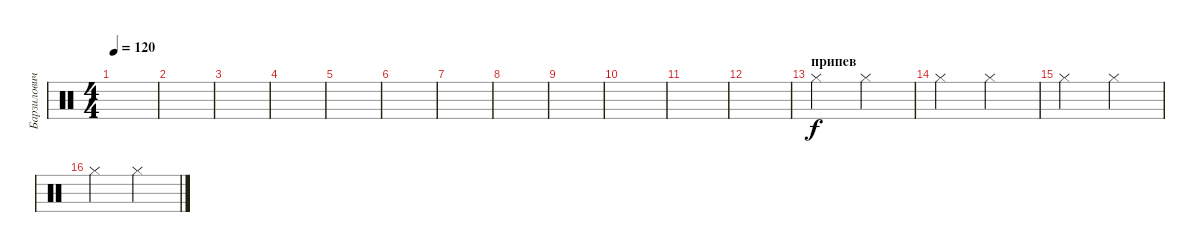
\track ("Барзилович" "Барзилович") {instrument percussion}
\staff {score}
\articulation defaults
\ts (4 4)
\tempo 120
\clef neutral
\ks c
|
|
|
|
|
|
|
|
|
|
|
|
\section ("" "припев")
"Hi-Hat (closed)".2 "Hi-Hat (closed)".2 |
"Hi-Hat (closed)".2 "Hi-Hat (closed)".2 |
"Hi-Hat (closed)".2 "Hi-Hat (closed)".2 |
"Hi-Hat (closed)".2 "Hi-Hat (closed)".2
